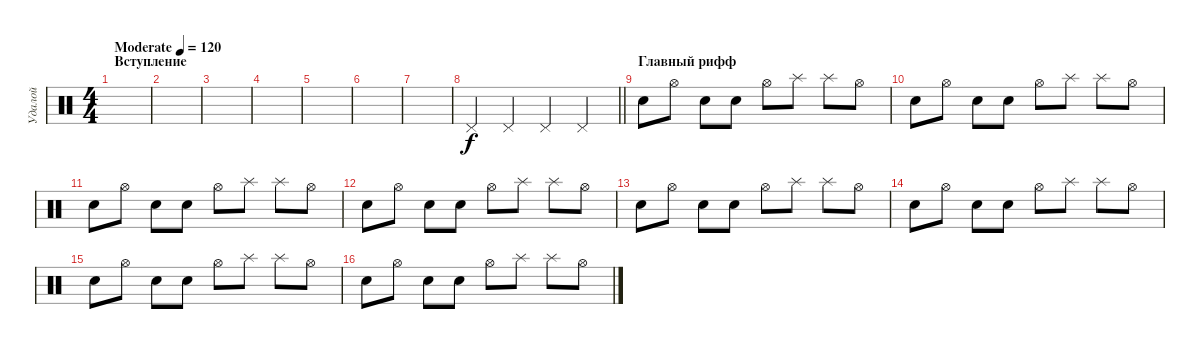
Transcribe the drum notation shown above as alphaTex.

\track ("Удалой" "Удалой") {instrument percussion}
\staff {score}
\articulation defaults
\ts (4 4)
\section ("" "Вступление")
\tempo (120 "Moderate")
\clef neutral
\ks c
|
|
|
|
|
|
|
\barLineRight lightlight "Pedal Hi-Hat (hit)".4 "Pedal Hi-Hat (hit)".4 "Pedal Hi-Hat (hit)".4 "Pedal Hi-Hat (hit)".4
|
\section ("" "Главный рифф")
"Snare (hit) 2".8 "Hi-Hat (open)".8 "Snare (hit) 2".8 "Snare (hit) 2".8 "Hi-Hat (open)".8 "Splash (hit)".8 "Splash (hit)".8 "Hi-Hat (open)".8 |
"Snare (hit) 2".8 "Hi-Hat (open)".8 "Snare (hit) 2".8 "Snare (hit) 2".8 "Hi-Hat (open)".8 "Splash (hit)".8 "Splash (hit)".8 "Hi-Hat (open)".8 |
"Snare (hit) 2".8 "Hi-Hat (open)".8 "Snare (hit) 2".8 "Snare (hit) 2".8 "Hi-Hat (open)".8 "Splash (hit)".8 "Splash (hit)".8 "Hi-Hat (open)".8 |
"Snare (hit) 2".8 "Hi-Hat (open)".8 "Snare (hit) 2".8 "Snare (hit) 2".8 "Hi-Hat (open)".8 "Splash (hit)".8 "Splash (hit)".8 "Hi-Hat (open)".8 |
"Snare (hit) 2".8 "Hi-Hat (open)".8 "Snare (hit) 2".8 "Snare (hit) 2".8 "Hi-Hat (open)".8 "Splash (hit)".8 "Splash (hit)".8 "Hi-Hat (open)".8 |
"Snare (hit) 2".8 "Hi-Hat (open)".8 "Snare (hit) 2".8 "Snare (hit) 2".8 "Hi-Hat (open)".8 "Splash (hit)".8 "Splash (hit)".8 "Hi-Hat (open)".8 |
"Snare (hit) 2".8 "Hi-Hat (open)".8 "Snare (hit) 2".8 "Snare (hit) 2".8 "Hi-Hat (open)".8 "Splash (hit)".8 "Splash (hit)".8 "Hi-Hat (open)".8 |
"Snare (hit) 2".8 "Hi-Hat (open)".8 "Snare (hit) 2".8 "Snare (hit) 2".8 "Hi-Hat (open)".8 "Splash (hit)".8 "Splash (hit)".8 "Hi-Hat (open)".8
